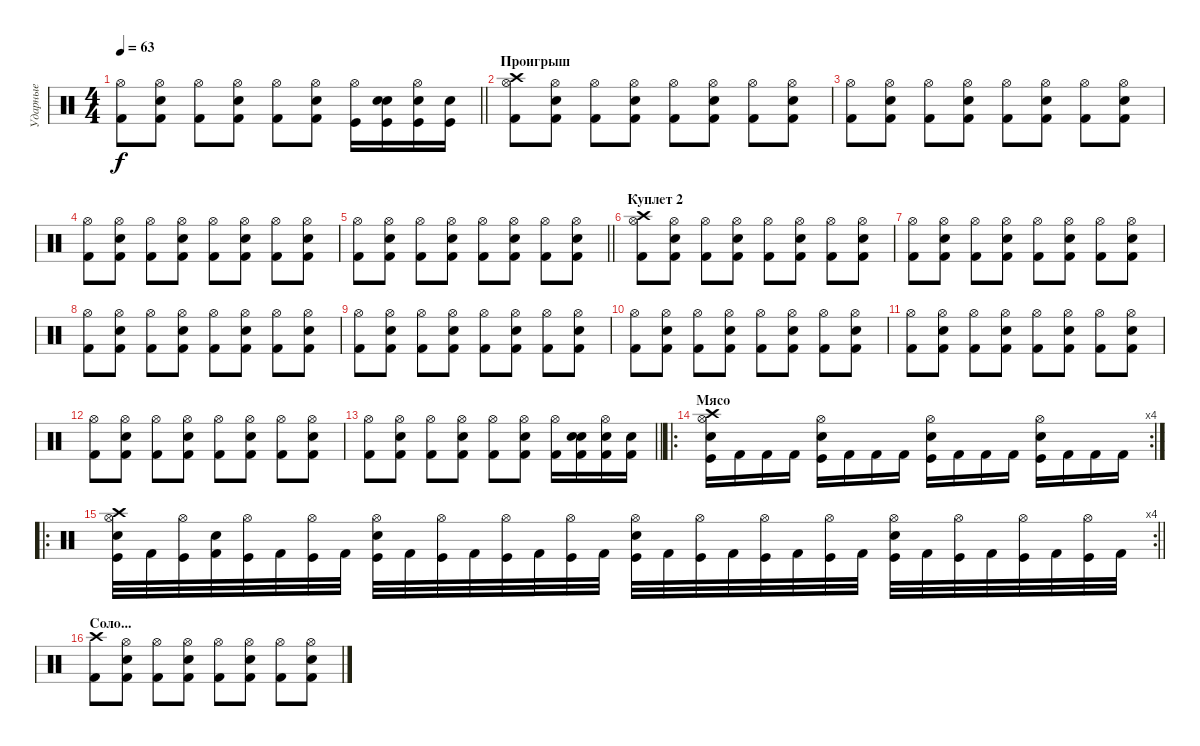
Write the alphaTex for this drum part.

\track ("Ударные" "Ударные") {instrument percussion}
\staff {score}
\articulation defaults
\ts (4 4)
\tempo 63
\clef neutral
\barLineRight lightlight
\ks c
("Hi-Hat (open)" "Kick (hit) 2").8{dy f} ("Hi-Hat (open)" "Snare (hit) 2" "Kick (hit) 2").8 ("Hi-Hat (open)" "Kick (hit) 2").8 ("Hi-Hat (open)" "Snare (hit) 2" "Kick (hit) 2").8 ("Hi-Hat (open)" "Kick (hit) 2").8 ("Hi-Hat (open)" "Snare (hit) 2" "Kick (hit) 2").8 ("Hi-Hat (open)" "Kick (hit)").16 ("Snare (hit)" "Snare (hit)" "Kick (hit)").16 ("Hi-Hat (open)" "Snare (hit) 2" "Kick (hit)").16 ("Snare (hit)" "Kick (hit)").16 |
\section ("" "Проигрыш")
("Hi-Hat (open)" "Crash high (hit)" "Kick (hit) 2").8 ("Hi-Hat (open)" "Snare (hit) 2" "Kick (hit) 2").8 ("Hi-Hat (open)" "Kick (hit) 2").8 ("Hi-Hat (open)" "Snare (hit) 2" "Kick (hit) 2").8 ("Hi-Hat (open)" "Kick (hit) 2").8 ("Hi-Hat (open)" "Snare (hit) 2" "Kick (hit) 2").8 ("Hi-Hat (open)" "Kick (hit) 2").8 ("Hi-Hat (open)" "Snare (hit) 2" "Kick (hit) 2").8 |
("Hi-Hat (open)" "Kick (hit) 2").8 ("Hi-Hat (open)" "Snare (hit) 2" "Kick (hit) 2").8 ("Hi-Hat (open)" "Kick (hit) 2").8 ("Hi-Hat (open)" "Snare (hit) 2" "Kick (hit) 2").8 ("Hi-Hat (open)" "Kick (hit) 2").8 ("Hi-Hat (open)" "Snare (hit) 2" "Kick (hit) 2").8 ("Hi-Hat (open)" "Kick (hit) 2").8 ("Hi-Hat (open)" "Snare (hit) 2" "Kick (hit) 2").8 |
("Hi-Hat (open)" "Kick (hit) 2").8 ("Hi-Hat (open)" "Snare (hit) 2" "Kick (hit) 2").8 ("Hi-Hat (open)" "Kick (hit) 2").8 ("Hi-Hat (open)" "Snare (hit) 2" "Kick (hit) 2").8 ("Hi-Hat (open)" "Kick (hit) 2").8 ("Hi-Hat (open)" "Snare (hit) 2" "Kick (hit) 2").8 ("Hi-Hat (open)" "Kick (hit) 2").8 ("Hi-Hat (open)" "Snare (hit) 2" "Kick (hit) 2").8 |
\barLineRight lightlight
("Hi-Hat (open)" "Kick (hit) 2").8 ("Hi-Hat (open)" "Snare (hit) 2" "Kick (hit) 2").8 ("Hi-Hat (open)" "Kick (hit) 2").8 ("Hi-Hat (open)" "Snare (hit) 2" "Kick (hit) 2").8 ("Hi-Hat (open)" "Kick (hit) 2").8 ("Hi-Hat (open)" "Snare (hit) 2" "Kick (hit) 2").8 ("Hi-Hat (open)" "Kick (hit) 2").8 ("Hi-Hat (open)" "Snare (hit) 2" "Kick (hit) 2").8 |
\section ("" "Куплет 2")
("Hi-Hat (open)" "Crash high (hit)" "Kick (hit) 2").8 ("Hi-Hat (open)" "Snare (hit) 2" "Kick (hit) 2").8 ("Hi-Hat (open)" "Kick (hit) 2").8 ("Hi-Hat (open)" "Snare (hit) 2" "Kick (hit) 2").8 ("Hi-Hat (open)" "Kick (hit) 2").8 ("Hi-Hat (open)" "Snare (hit) 2" "Kick (hit) 2").8 ("Hi-Hat (open)" "Kick (hit) 2").8 ("Hi-Hat (open)" "Snare (hit) 2" "Kick (hit) 2").8 |
("Hi-Hat (open)" "Kick (hit) 2").8 ("Hi-Hat (open)" "Snare (hit) 2" "Kick (hit) 2").8 ("Hi-Hat (open)" "Kick (hit) 2").8 ("Hi-Hat (open)" "Snare (hit) 2" "Kick (hit) 2").8 ("Hi-Hat (open)" "Kick (hit) 2").8 ("Hi-Hat (open)" "Snare (hit) 2" "Kick (hit) 2").8 ("Hi-Hat (open)" "Kick (hit) 2").8 ("Hi-Hat (open)" "Snare (hit) 2" "Kick (hit) 2").8 |
("Hi-Hat (open)" "Kick (hit) 2").8 ("Hi-Hat (open)" "Snare (hit) 2" "Kick (hit) 2").8 ("Hi-Hat (open)" "Kick (hit) 2").8 ("Hi-Hat (open)" "Snare (hit) 2" "Kick (hit) 2").8 ("Hi-Hat (open)" "Kick (hit) 2").8 ("Hi-Hat (open)" "Snare (hit) 2" "Kick (hit) 2").8 ("Hi-Hat (open)" "Kick (hit) 2").8 ("Hi-Hat (open)" "Snare (hit) 2" "Kick (hit) 2").8 |
("Hi-Hat (open)" "Kick (hit) 2").8 ("Hi-Hat (open)" "Snare (hit) 2" "Kick (hit) 2").8 ("Hi-Hat (open)" "Kick (hit) 2").8 ("Hi-Hat (open)" "Snare (hit) 2" "Kick (hit) 2").8 ("Hi-Hat (open)" "Kick (hit) 2").8 ("Hi-Hat (open)" "Snare (hit) 2" "Kick (hit) 2").8 ("Hi-Hat (open)" "Kick (hit) 2").8 ("Hi-Hat (open)" "Snare (hit) 2" "Kick (hit) 2").8 |
("Hi-Hat (open)" "Kick (hit) 2").8 ("Hi-Hat (open)" "Snare (hit) 2" "Kick (hit) 2").8 ("Hi-Hat (open)" "Kick (hit) 2").8 ("Hi-Hat (open)" "Snare (hit) 2" "Kick (hit) 2").8 ("Hi-Hat (open)" "Kick (hit) 2").8 ("Hi-Hat (open)" "Snare (hit) 2" "Kick (hit) 2").8 ("Hi-Hat (open)" "Kick (hit) 2").8 ("Hi-Hat (open)" "Snare (hit) 2" "Kick (hit) 2").8 |
("Hi-Hat (open)" "Kick (hit) 2").8 ("Hi-Hat (open)" "Snare (hit) 2" "Kick (hit) 2").8 ("Hi-Hat (open)" "Kick (hit) 2").8 ("Hi-Hat (open)" "Snare (hit) 2" "Kick (hit) 2").8 ("Hi-Hat (open)" "Kick (hit) 2").8 ("Hi-Hat (open)" "Snare (hit) 2" "Kick (hit) 2").8 ("Hi-Hat (open)" "Kick (hit) 2").8 ("Hi-Hat (open)" "Snare (hit) 2" "Kick (hit) 2").8 |
("Hi-Hat (open)" "Kick (hit) 2").8 ("Hi-Hat (open)" "Snare (hit) 2" "Kick (hit) 2").8 ("Hi-Hat (open)" "Kick (hit) 2").8 ("Hi-Hat (open)" "Snare (hit) 2" "Kick (hit) 2").8 ("Hi-Hat (open)" "Kick (hit) 2").8 ("Hi-Hat (open)" "Snare (hit) 2" "Kick (hit) 2").8 ("Hi-Hat (open)" "Kick (hit) 2").8 ("Hi-Hat (open)" "Snare (hit) 2" "Kick (hit) 2").8 |
\barLineRight lightlight
("Hi-Hat (open)" "Kick (hit) 2").8 ("Hi-Hat (open)" "Snare (hit) 2" "Kick (hit) 2").8 ("Hi-Hat (open)" "Kick (hit) 2").8 ("Hi-Hat (open)" "Snare (hit) 2" "Kick (hit) 2").8 ("Hi-Hat (open)" "Kick (hit) 2").8 ("Hi-Hat (open)" "Snare (hit) 2" "Kick (hit) 2").8 ("Hi-Hat (open)" "Kick (hit) 2").16 ("Snare (hit)" "Snare (hit)" "Kick (hit) 2").16 ("Hi-Hat (open)" "Snare (hit) 2" "Kick (hit) 2").16 ("Snare (hit)" "Kick (hit) 2").16 |
\ro
\rc 4
\section ("" "Мясо")
("Electric Snare (hit)" "Crash high (hit)" "Hi-Hat (open)" "Kick (hit)").16 "Kick (hit) 2".16 "Kick (hit) 2".16 "Kick (hit) 2".16 ("Electric Snare (hit)" "Hi-Hat (open)" "Kick (hit)").16 "Kick (hit) 2".16 "Kick (hit) 2".16 "Kick (hit) 2".16 ("Electric Snare (hit)" "Hi-Hat (open)" "Kick (hit)").16 "Kick (hit) 2".16 "Kick (hit) 2".16 "Kick (hit) 2".16 ("Electric Snare (hit)" "Hi-Hat (open)" "Kick (hit)").16 "Kick (hit) 2".16 "Kick (hit) 2".16 "Kick (hit) 2".16 |
\ro
\rc 4
\barLineRight lightlight
("Electric Snare (hit)" "Crash high (hit)" "Hi-Hat (open)" "Kick (hit)").32 "Kick (hit) 2".32 ("Hi-Hat (open)" "Kick (hit)").32 ("Snare (hit)" "Kick (hit) 2").32 ("Hi-Hat (open)" "Kick (hit)").32 "Kick (hit) 2".32 ("Hi-Hat (open)" "Kick (hit)").32 "Kick (hit) 2".32 ("Electric Snare (hit)" "Hi-Hat (open)" "Kick (hit)").32 "Kick (hit) 2".32 ("Hi-Hat (open)" "Kick (hit)").32 "Kick (hit) 2".32 ("Hi-Hat (open)" "Kick (hit)").32 "Kick (hit) 2".32 ("Hi-Hat (open)" "Kick (hit)").32 "Kick (hit) 2".32 ("Electric Snare (hit)" "Hi-Hat (open)" "Kick (hit)").32 "Kick (hit) 2".32 ("Hi-Hat (open)" "Kick (hit)").32 "Kick (hit) 2".32 ("Hi-Hat (open)" "Kick (hit)").32 "Kick (hit) 2".32 ("Hi-Hat (open)" "Kick (hit)").32 "Kick (hit) 2".32 ("Electric Snare (hit)" "Hi-Hat (open)" "Kick (hit)").32 "Kick (hit) 2".32 ("Hi-Hat (open)" "Kick (hit)").32 "Kick (hit) 2".32 ("Hi-Hat (open)" "Kick (hit)").32 "Kick (hit) 2".32 ("Hi-Hat (open)" "Kick (hit)").32 "Kick (hit) 2".32 |
\section ("" "Соло...")
("Crash high (hit)" "Kick (hit) 2").8 ("Hi-Hat (open)" "Snare (hit) 2" "Kick (hit) 2").8 ("Hi-Hat (open)" "Kick (hit) 2").8 ("Hi-Hat (open)" "Snare (hit) 2" "Kick (hit) 2").8 ("Hi-Hat (open)" "Kick (hit) 2").8 ("Hi-Hat (open)" "Snare (hit) 2" "Kick (hit) 2").8 ("Hi-Hat (open)" "Kick (hit) 2").8 ("Hi-Hat (open)" "Snare (hit) 2" "Kick (hit) 2").8
